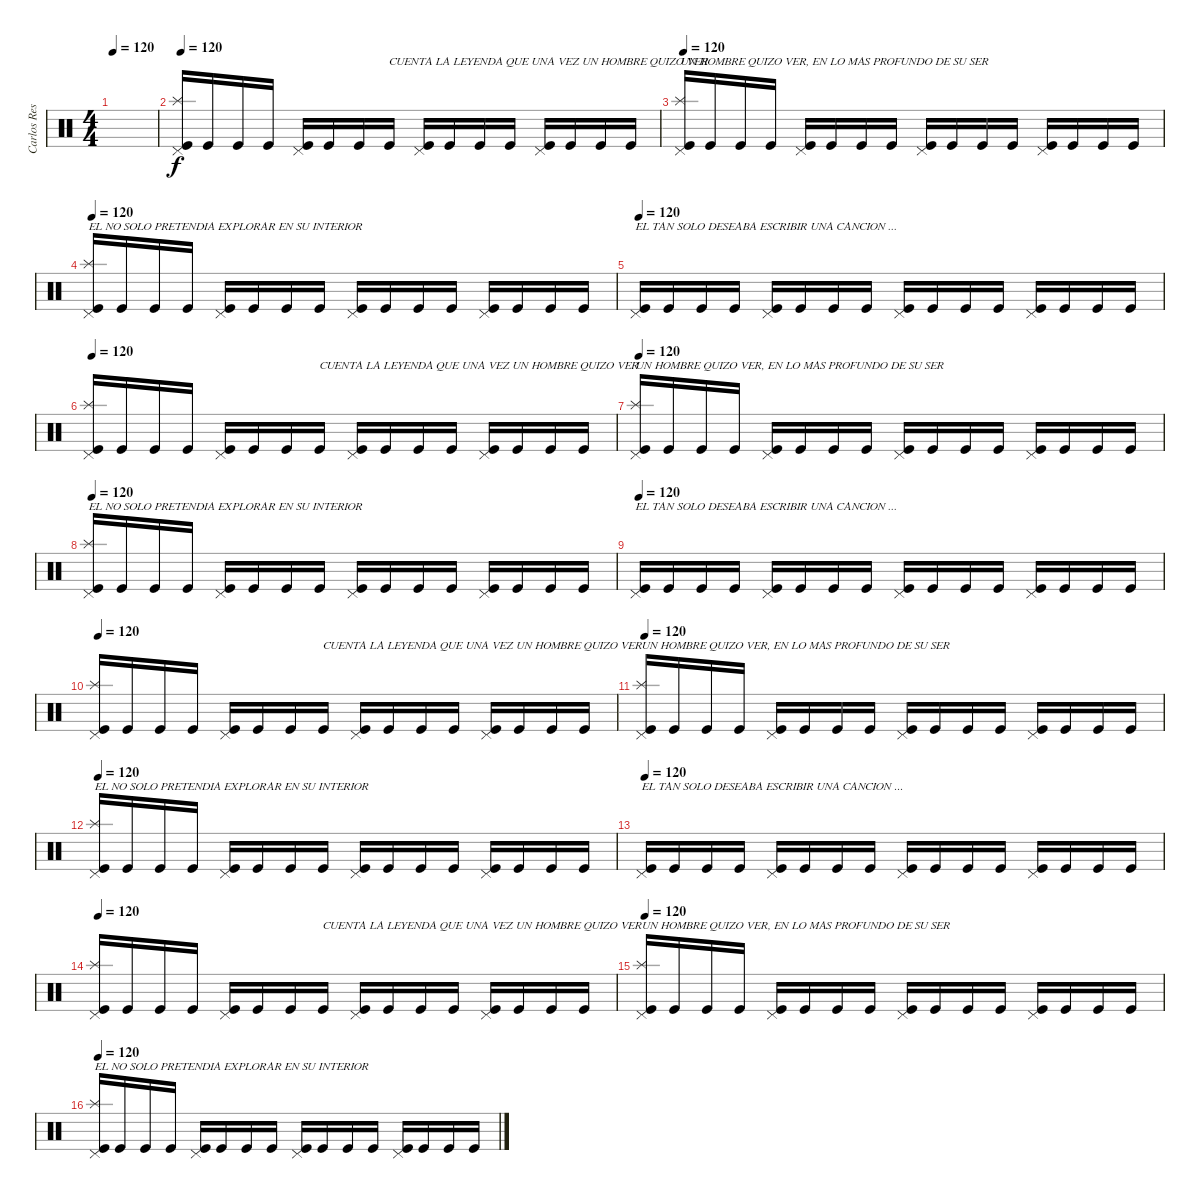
\track ("Carlos Restrepo" "Carlos Res") {instrument percussion}
\staff {score}
\articulation defaults
\ts (4 4)
\tempo 120
\clef neutral
\ks c
|
\tempo 120
("Kick (hit)" "Splash (hit)" "Pedal Hi-Hat (hit)").16 "Kick (hit)".16 "Kick (hit)".16 "Kick (hit)".16 ("Kick (hit)" "Pedal Hi-Hat (hit)").16 "Kick (hit)".16 "Kick (hit)".16 "Kick (hit)".16{txt "CUENTA LA LEYENDA QUE UNA VEZ UN HOMBRE QUIZO VER"} ("Kick (hit)" "Pedal Hi-Hat (hit)").16 "Kick (hit)".16 "Kick (hit)".16 "Kick (hit)".16 ("Kick (hit)" "Pedal Hi-Hat (hit)").16 "Kick (hit)".16 "Kick (hit)".16 "Kick (hit)".16 |
\tempo 120
("Kick (hit)" "Splash (hit)" "Pedal Hi-Hat (hit)").16{txt "UN HOMBRE QUIZO VER, EN LO MAS PROFUNDO DE SU SER"} "Kick (hit)".16 "Kick (hit)".16 "Kick (hit)".16 ("Kick (hit)" "Pedal Hi-Hat (hit)").16 "Kick (hit)".16 "Kick (hit)".16 "Kick (hit)".16 ("Kick (hit)" "Pedal Hi-Hat (hit)").16 "Kick (hit)".16 "Kick (hit)".16 "Kick (hit)".16 ("Kick (hit)" "Pedal Hi-Hat (hit)").16 "Kick (hit)".16 "Kick (hit)".16 "Kick (hit)".16 |
\tempo 120
("Kick (hit)" "Splash (hit)" "Pedal Hi-Hat (hit)").16{txt "EL NO SOLO PRETENDIA EXPLORAR EN SU INTERIOR"} "Kick (hit)".16 "Kick (hit)".16 "Kick (hit)".16 ("Kick (hit)" "Pedal Hi-Hat (hit)").16 "Kick (hit)".16 "Kick (hit)".16 "Kick (hit)".16 ("Kick (hit)" "Pedal Hi-Hat (hit)").16 "Kick (hit)".16 "Kick (hit)".16 "Kick (hit)".16 ("Kick (hit)" "Pedal Hi-Hat (hit)").16 "Kick (hit)".16 "Kick (hit)".16 "Kick (hit)".16 |
\tempo 120
("Kick (hit)" "Pedal Hi-Hat (hit)").16{txt "EL TAN SOLO DESEABA ESCRIBIR UNA CANCION ..."} "Kick (hit)".16 "Kick (hit)".16 "Kick (hit)".16 ("Kick (hit)" "Pedal Hi-Hat (hit)").16 "Kick (hit)".16 "Kick (hit)".16 "Kick (hit)".16 ("Kick (hit)" "Pedal Hi-Hat (hit)").16 "Kick (hit)".16 "Kick (hit)".16 "Kick (hit)".16 ("Kick (hit)" "Pedal Hi-Hat (hit)").16 "Kick (hit)".16 "Kick (hit)".16 "Kick (hit)".16 |
\tempo 120
("Kick (hit)" "Splash (hit)" "Pedal Hi-Hat (hit)").16 "Kick (hit)".16 "Kick (hit)".16 "Kick (hit)".16 ("Kick (hit)" "Pedal Hi-Hat (hit)").16 "Kick (hit)".16 "Kick (hit)".16 "Kick (hit)".16{txt "CUENTA LA LEYENDA QUE UNA VEZ UN HOMBRE QUIZO VER"} ("Kick (hit)" "Pedal Hi-Hat (hit)").16 "Kick (hit)".16 "Kick (hit)".16 "Kick (hit)".16 ("Kick (hit)" "Pedal Hi-Hat (hit)").16 "Kick (hit)".16 "Kick (hit)".16 "Kick (hit)".16 |
\tempo 120
("Kick (hit)" "Splash (hit)" "Pedal Hi-Hat (hit)").16{txt "UN HOMBRE QUIZO VER, EN LO MAS PROFUNDO DE SU SER"} "Kick (hit)".16 "Kick (hit)".16 "Kick (hit)".16 ("Kick (hit)" "Pedal Hi-Hat (hit)").16 "Kick (hit)".16 "Kick (hit)".16 "Kick (hit)".16 ("Kick (hit)" "Pedal Hi-Hat (hit)").16 "Kick (hit)".16 "Kick (hit)".16 "Kick (hit)".16 ("Kick (hit)" "Pedal Hi-Hat (hit)").16 "Kick (hit)".16 "Kick (hit)".16 "Kick (hit)".16 |
\tempo 120
("Kick (hit)" "Splash (hit)" "Pedal Hi-Hat (hit)").16{txt "EL NO SOLO PRETENDIA EXPLORAR EN SU INTERIOR"} "Kick (hit)".16 "Kick (hit)".16 "Kick (hit)".16 ("Kick (hit)" "Pedal Hi-Hat (hit)").16 "Kick (hit)".16 "Kick (hit)".16 "Kick (hit)".16 ("Kick (hit)" "Pedal Hi-Hat (hit)").16 "Kick (hit)".16 "Kick (hit)".16 "Kick (hit)".16 ("Kick (hit)" "Pedal Hi-Hat (hit)").16 "Kick (hit)".16 "Kick (hit)".16 "Kick (hit)".16 |
\tempo 120
("Kick (hit)" "Pedal Hi-Hat (hit)").16{txt "EL TAN SOLO DESEABA ESCRIBIR UNA CANCION ..."} "Kick (hit)".16 "Kick (hit)".16 "Kick (hit)".16 ("Kick (hit)" "Pedal Hi-Hat (hit)").16 "Kick (hit)".16 "Kick (hit)".16 "Kick (hit)".16 ("Kick (hit)" "Pedal Hi-Hat (hit)").16 "Kick (hit)".16 "Kick (hit)".16 "Kick (hit)".16 ("Kick (hit)" "Pedal Hi-Hat (hit)").16 "Kick (hit)".16 "Kick (hit)".16 "Kick (hit)".16 |
\tempo 120
("Kick (hit)" "Splash (hit)" "Pedal Hi-Hat (hit)").16 "Kick (hit)".16 "Kick (hit)".16 "Kick (hit)".16 ("Kick (hit)" "Pedal Hi-Hat (hit)").16 "Kick (hit)".16 "Kick (hit)".16 "Kick (hit)".16{txt "CUENTA LA LEYENDA QUE UNA VEZ UN HOMBRE QUIZO VER"} ("Kick (hit)" "Pedal Hi-Hat (hit)").16 "Kick (hit)".16 "Kick (hit)".16 "Kick (hit)".16 ("Kick (hit)" "Pedal Hi-Hat (hit)").16 "Kick (hit)".16 "Kick (hit)".16 "Kick (hit)".16 |
\tempo 120
("Kick (hit)" "Splash (hit)" "Pedal Hi-Hat (hit)").16{txt "UN HOMBRE QUIZO VER, EN LO MAS PROFUNDO DE SU SER"} "Kick (hit)".16 "Kick (hit)".16 "Kick (hit)".16 ("Kick (hit)" "Pedal Hi-Hat (hit)").16 "Kick (hit)".16 "Kick (hit)".16 "Kick (hit)".16 ("Kick (hit)" "Pedal Hi-Hat (hit)").16 "Kick (hit)".16 "Kick (hit)".16 "Kick (hit)".16 ("Kick (hit)" "Pedal Hi-Hat (hit)").16 "Kick (hit)".16 "Kick (hit)".16 "Kick (hit)".16 |
\tempo 120
("Kick (hit)" "Splash (hit)" "Pedal Hi-Hat (hit)").16{txt "EL NO SOLO PRETENDIA EXPLORAR EN SU INTERIOR"} "Kick (hit)".16 "Kick (hit)".16 "Kick (hit)".16 ("Kick (hit)" "Pedal Hi-Hat (hit)").16 "Kick (hit)".16 "Kick (hit)".16 "Kick (hit)".16 ("Kick (hit)" "Pedal Hi-Hat (hit)").16 "Kick (hit)".16 "Kick (hit)".16 "Kick (hit)".16 ("Kick (hit)" "Pedal Hi-Hat (hit)").16 "Kick (hit)".16 "Kick (hit)".16 "Kick (hit)".16 |
\tempo 120
("Kick (hit)" "Pedal Hi-Hat (hit)").16{txt "EL TAN SOLO DESEABA ESCRIBIR UNA CANCION ..."} "Kick (hit)".16 "Kick (hit)".16 "Kick (hit)".16 ("Kick (hit)" "Pedal Hi-Hat (hit)").16 "Kick (hit)".16 "Kick (hit)".16 "Kick (hit)".16 ("Kick (hit)" "Pedal Hi-Hat (hit)").16 "Kick (hit)".16 "Kick (hit)".16 "Kick (hit)".16 ("Kick (hit)" "Pedal Hi-Hat (hit)").16 "Kick (hit)".16 "Kick (hit)".16 "Kick (hit)".16 |
\tempo 120
("Kick (hit)" "Splash (hit)" "Pedal Hi-Hat (hit)").16 "Kick (hit)".16 "Kick (hit)".16 "Kick (hit)".16 ("Kick (hit)" "Pedal Hi-Hat (hit)").16 "Kick (hit)".16 "Kick (hit)".16 "Kick (hit)".16{txt "CUENTA LA LEYENDA QUE UNA VEZ UN HOMBRE QUIZO VER"} ("Kick (hit)" "Pedal Hi-Hat (hit)").16 "Kick (hit)".16 "Kick (hit)".16 "Kick (hit)".16 ("Kick (hit)" "Pedal Hi-Hat (hit)").16 "Kick (hit)".16 "Kick (hit)".16 "Kick (hit)".16 |
\tempo 120
("Kick (hit)" "Splash (hit)" "Pedal Hi-Hat (hit)").16{txt "UN HOMBRE QUIZO VER, EN LO MAS PROFUNDO DE SU SER"} "Kick (hit)".16 "Kick (hit)".16 "Kick (hit)".16 ("Kick (hit)" "Pedal Hi-Hat (hit)").16 "Kick (hit)".16 "Kick (hit)".16 "Kick (hit)".16 ("Kick (hit)" "Pedal Hi-Hat (hit)").16 "Kick (hit)".16 "Kick (hit)".16 "Kick (hit)".16 ("Kick (hit)" "Pedal Hi-Hat (hit)").16 "Kick (hit)".16 "Kick (hit)".16 "Kick (hit)".16 |
\tempo 120
("Kick (hit)" "Splash (hit)" "Pedal Hi-Hat (hit)").16{txt "EL NO SOLO PRETENDIA EXPLORAR EN SU INTERIOR"} "Kick (hit)".16 "Kick (hit)".16 "Kick (hit)".16 ("Kick (hit)" "Pedal Hi-Hat (hit)").16 "Kick (hit)".16 "Kick (hit)".16 "Kick (hit)".16 ("Kick (hit)" "Pedal Hi-Hat (hit)").16 "Kick (hit)".16 "Kick (hit)".16 "Kick (hit)".16 ("Kick (hit)" "Pedal Hi-Hat (hit)").16 "Kick (hit)".16 "Kick (hit)".16 "Kick (hit)".16
